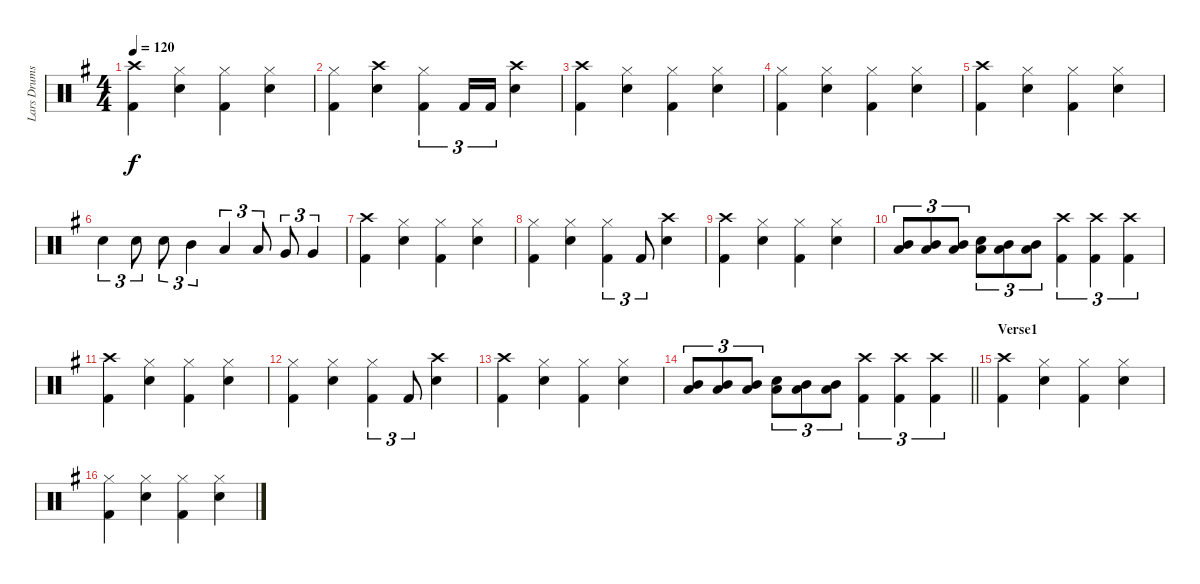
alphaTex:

\track ("Lars Drums" "Lars Drums") {instrument percussion}
\staff {score}
\articulation defaults
\ts (4 4)
\tempo 120
\clef neutral
\ks g
("Crash high (hit)" "Kick (hit) 2").4{dy f} ("Hi-Hat (closed)" "Snare (hit) 2").4 ("Hi-Hat (closed)" "Kick (hit) 2").4 ("Hi-Hat (closed)" "Snare (hit) 2").4 |
("Hi-Hat (closed)" "Kick (hit) 2").4 ("Crash high (hit)" "Snare (hit) 2").4 ("Hi-Hat (closed)" "Kick (hit) 2").4{tu (3 2)} "Kick (hit) 2".16{tu (3 2)} "Kick (hit) 2".16{tu (3 2)} ("Crash high (hit)" "Snare (hit) 2").4 |
("Crash high (hit)" "Kick (hit) 2").4 ("Hi-Hat (closed)" "Snare (hit) 2").4 ("Hi-Hat (closed)" "Kick (hit) 2").4 ("Hi-Hat (closed)" "Snare (hit) 2").4 |
("Hi-Hat (closed)" "Kick (hit) 2").4 ("Hi-Hat (closed)" "Snare (hit) 2").4 ("Hi-Hat (closed)" "Kick (hit) 2").4 ("Hi-Hat (closed)" "Snare (hit) 2").4 |
("Crash high (hit)" "Kick (hit) 2").4 ("Hi-Hat (closed)" "Snare (hit) 2").4 ("Hi-Hat (closed)" "Kick (hit) 2").4 ("Hi-Hat (closed)" "Snare (hit) 2").4 |
"Snare (hit) 2".4{tu (3 2)} "Snare (hit) 2".8{tu (3 2)} "Snare (hit) 2".8{tu (3 2)} "Mid Tom (hit)".4{tu (3 2)} "Low Tom (hit)".4{tu (3 2)} "Low Tom (hit)".8{tu (3 2)} "Very Low Tom (hit)".8{tu (3 2)} "Very Low Tom (hit)".4{tu (3 2)} |
("Crash high (hit)" "Kick (hit) 2").4 ("Hi-Hat (closed)" "Snare (hit) 2").4 ("Hi-Hat (closed)" "Kick (hit) 2").4 ("Hi-Hat (closed)" "Snare (hit) 2").4 |
("Hi-Hat (closed)" "Kick (hit) 2").4 ("Hi-Hat (closed)" "Snare (hit) 2").4 ("Hi-Hat (closed)" "Kick (hit) 2").4{tu (3 2)} "Kick (hit) 2".8{tu (3 2)} ("Crash high (hit)" "Snare (hit) 2").4 |
("Crash high (hit)" "Kick (hit) 2").4 ("Hi-Hat (closed)" "Snare (hit) 2").4 ("Hi-Hat (closed)" "Kick (hit) 2").4 ("Hi-Hat (closed)" "Snare (hit) 2").4 |
("Low Tom (hit)" "Mid Tom (hit)").8{tu (3 2)} ("Low Tom (hit)" "Mid Tom (hit)").8{tu (3 2)} ("Low Tom (hit)" "Mid Tom (hit)").8{tu (3 2)} ("Low Tom (hit)" "Snare (hit) 2").8{tu (3 2)} ("Low Tom (hit)" "Mid Tom (hit)").8{tu (3 2)} ("Low Tom (hit)" "Mid Tom (hit)").8{tu (3 2)} ("Crash high (hit)" "Kick (hit) 2").4{tu (3 2)} ("Crash high (hit)" "Kick (hit) 2").4{tu (3 2)} ("Crash high (hit)" "Kick (hit) 2").4{tu (3 2)} |
("Crash high (hit)" "Kick (hit) 2").4 ("Hi-Hat (closed)" "Snare (hit) 2").4 ("Hi-Hat (closed)" "Kick (hit) 2").4 ("Hi-Hat (closed)" "Snare (hit) 2").4 |
("Hi-Hat (closed)" "Kick (hit) 2").4 ("Hi-Hat (closed)" "Snare (hit) 2").4 ("Hi-Hat (closed)" "Kick (hit) 2").4{tu (3 2)} "Kick (hit) 2".8{tu (3 2)} ("Crash high (hit)" "Snare (hit) 2").4 |
("Crash high (hit)" "Kick (hit) 2").4 ("Hi-Hat (closed)" "Snare (hit) 2").4 ("Hi-Hat (closed)" "Kick (hit) 2").4 ("Hi-Hat (closed)" "Snare (hit) 2").4 |
\barLineRight lightlight
("Low Tom (hit)" "Mid Tom (hit)").8{tu (3 2)} ("Low Tom (hit)" "Mid Tom (hit)").8{tu (3 2)} ("Low Tom (hit)" "Mid Tom (hit)").8{tu (3 2)} ("Low Tom (hit)" "Snare (hit) 2").8{tu (3 2)} ("Low Tom (hit)" "Mid Tom (hit)").8{tu (3 2)} ("Low Tom (hit)" "Mid Tom (hit)").8{tu (3 2)} ("Crash high (hit)" "Kick (hit) 2").4{tu (3 2)} ("Crash high (hit)" "Kick (hit) 2").4{tu (3 2)} ("Crash high (hit)" "Kick (hit) 2").4{tu (3 2)} |
\section ("" "Verse1")
("Crash high (hit)" "Kick (hit) 2").4 ("Hi-Hat (closed)" "Snare (hit) 2").4 ("Hi-Hat (closed)" "Kick (hit) 2").4 ("Hi-Hat (closed)" "Snare (hit) 2").4 |
("Hi-Hat (closed)" "Kick (hit) 2").4 ("Hi-Hat (closed)" "Snare (hit) 2").4 ("Hi-Hat (closed)" "Kick (hit) 2").4 ("Hi-Hat (closed)" "Snare (hit) 2").4
